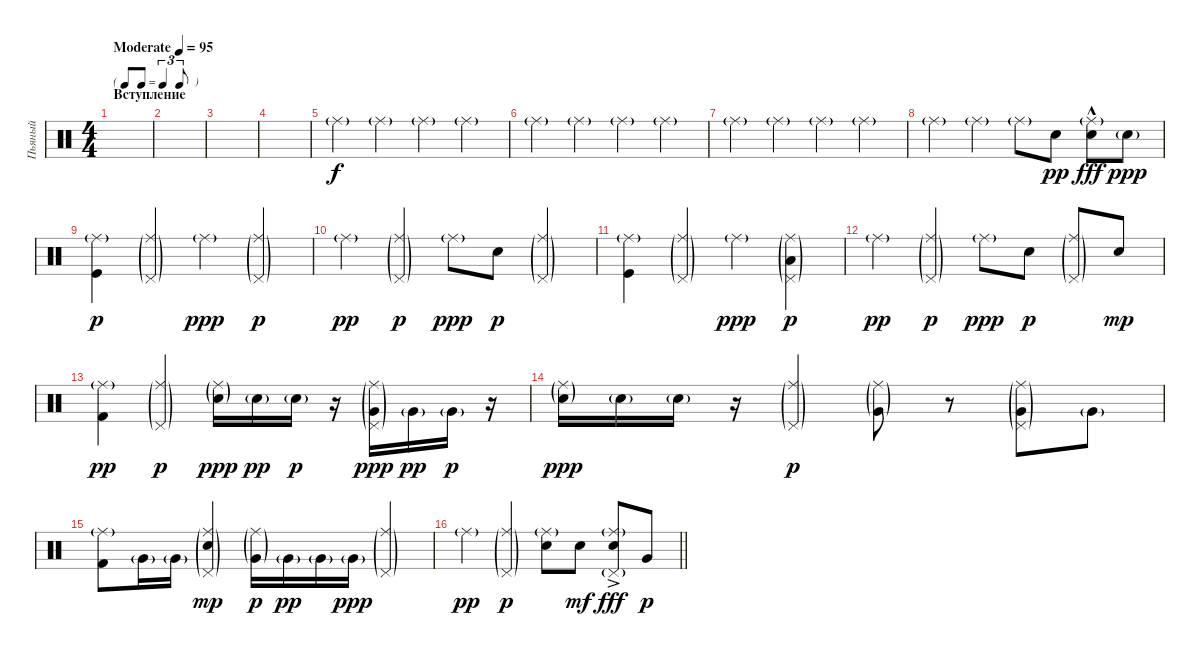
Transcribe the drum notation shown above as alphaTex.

\track ("Пьяный" "Пьяный") {instrument percussion}
\staff {score}
\articulation defaults
\ts (4 4)
\tf triplet8th
\section ("" "Вступление")
\tempo (95 "Moderate")
\clef neutral
\ks c
|
|
|
|
"Ride (middle)"{g}.4 "Ride (middle)"{g}.4 "Ride (middle)"{g}.4 "Ride (middle)"{g}.4 |
"Ride (middle)"{g}.4 "Ride (middle)"{g}.4 "Ride (middle)"{g}.4 "Ride (middle)"{g}.4 |
"Ride (middle)"{g}.4 "Ride (middle)"{g}.4 "Ride (middle)"{g}.4 "Ride (middle)"{g}.4 |
"Ride (middle)"{g}.4 "Ride (middle)"{g}.4 "Ride (middle)"{g}.8 "Snare (hit) 2".8{dy pp} ("Ride (middle)"{g} "Snare (hit) 2"{hac}).8{dy fff} "Snare (hit) 2"{g}.8{dy ppp} |
("Ride (middle)"{g} "Kick (hit)").4{dy p} ("Ride (middle)"{g} "Pedal Hi-Hat (hit)"{g}).4 "Ride (middle)"{g}.4{dy ppp} ("Ride (middle)"{g} "Pedal Hi-Hat (hit)"{g}).4{dy p} |
"Ride (middle)"{g}.4{dy pp} ("Ride (middle)"{g} "Pedal Hi-Hat (hit)"{g}).4{dy p} "Ride (middle)"{g}.8{dy ppp} "Snare (hit) 2".8{dy p} ("Ride (middle)"{g} "Pedal Hi-Hat (hit)"{g}).4 |
("Ride (middle)"{g} "Kick (hit)").4 ("Ride (middle)"{g} "Pedal Hi-Hat (hit)"{g}).4 "Ride (middle)"{g}.4{dy ppp} ("Ride (middle)"{g} "Pedal Hi-Hat (hit)"{g} "Low Tom (hit)"{g}).4{dy p} |
"Ride (middle)"{g}.4{dy pp} ("Ride (middle)"{g} "Pedal Hi-Hat (hit)"{g}).4{dy p} "Ride (middle)"{g}.8{dy ppp} "Snare (hit) 2".8{dy p} ("Ride (middle)"{g} "Pedal Hi-Hat (hit)"{g}).8 "Snare (hit) 2".8{dy mp} |
("Ride (middle)"{g} "Kick (hit) 2").4{dy pp} ("Ride (middle)"{g} "Pedal Hi-Hat (hit)"{g}).4{dy p} ("Ride (middle)"{g} "Snare (hit) 2"{g}).16{dy ppp} "Snare (hit) 2"{g}.16{dy pp} "Snare (hit) 2"{g}.16{dy p} r.16 ("Ride (middle)"{g} "Pedal Hi-Hat (hit)"{g} "Very Low Tom (hit)"{g}).16{dy ppp} "Very Low Tom (hit)"{g}.16{dy pp} "Very Low Tom (hit)"{g}.16{dy p} r.16 |
("Ride (middle)"{g} "Snare (hit) 2"{g}).16{dy ppp} "Snare (hit) 2"{g}.16 "Snare (hit) 2"{g}.16 r.16 ("Ride (middle)"{g} "Pedal Hi-Hat (hit)"{g}).4{dy p} ("Ride (middle)"{g} "Very Low Tom (hit)"{g}).8 r.8 ("Ride (middle)"{g} "Pedal Hi-Hat (hit)"{g} "Very Low Tom (hit)"{g}).8 "Very Low Tom (hit)"{g}.8 |
("Ride (middle)"{g} "Kick (hit) 2").8 "Very Low Tom (hit)"{g}.16 "Very Low Tom (hit)"{g}.16 ("Ride (middle)"{g} "Pedal Hi-Hat (hit)"{g} "Snare (hit) 2"{g}).4{dy mp} ("Ride (middle)"{g} "Very Low Tom (hit)"{g}).16{dy p} "Very Low Tom (hit)"{g}.16{dy pp} "Very Low Tom (hit)"{g}.16 "Very Low Tom (hit)"{g}.16{dy ppp} ("Ride (middle)"{g} "Pedal Hi-Hat (hit)"{g}).4 |
\barLineRight lightlight "Ride (middle)"{g}.4{dy pp}
("Ride (middle)"{g} "Pedal Hi-Hat (hit)"{g}).4{dy p} ("Ride (middle)"{g} "Snare (hit) 2").8 "Snare (hit) 2".8{dy mf} ("Ride (middle)"{g} "Pedal Hi-Hat (hit)"{g} "Snare (hit) 2"{ac}).8{dy fff} "Very Low Tom (hit)".8{dy p}
